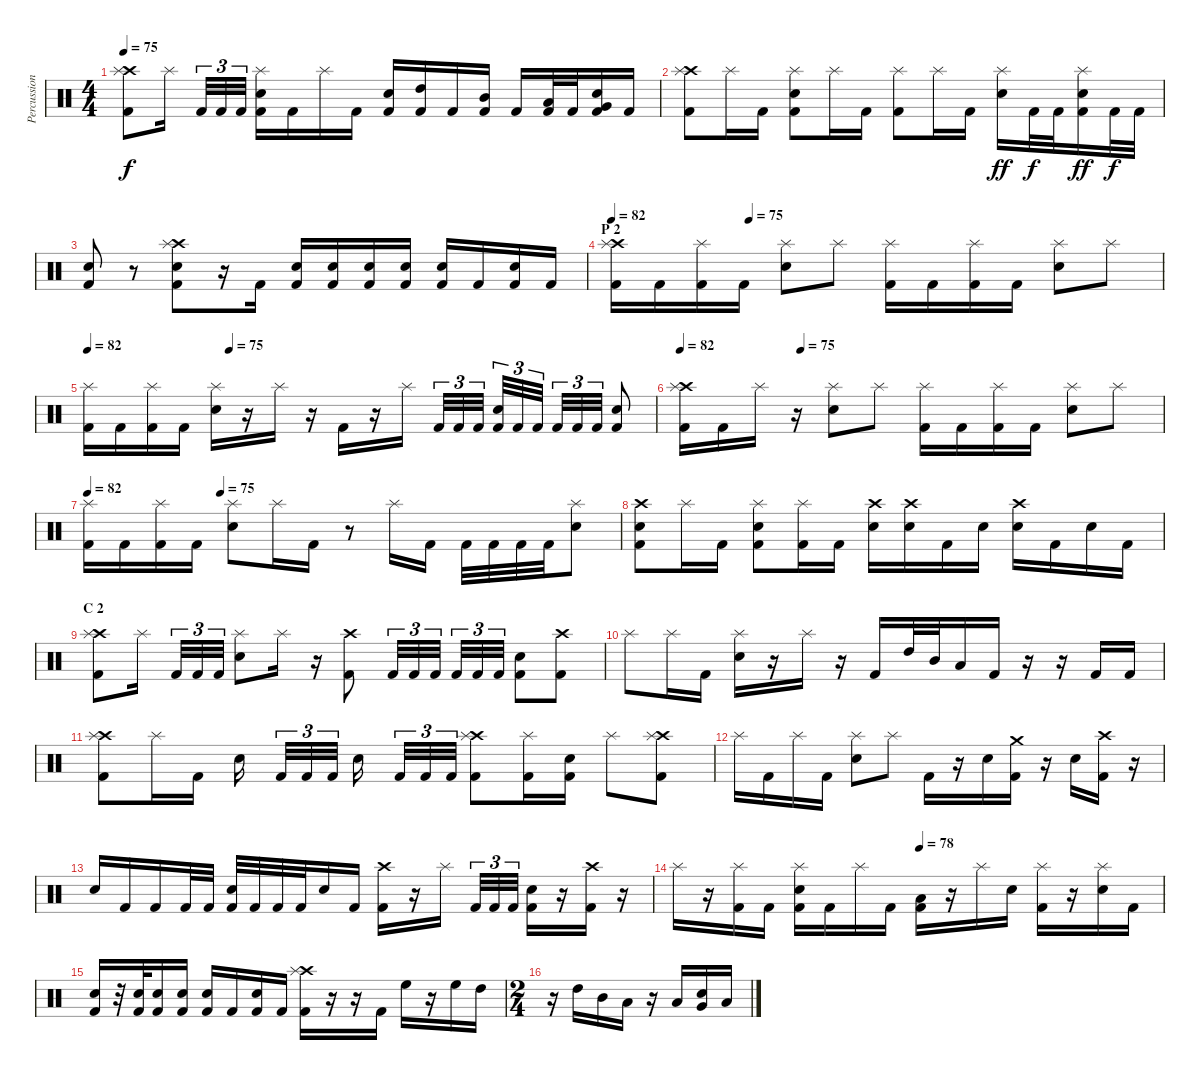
\track ("Percussion" "Percussion") {instrument percussion}
\staff {score}
\articulation defaults
\ts (4 4)
\tempo 75
\clef neutral
\ks c
("Crash high (hit)" "Splash (hit)" "Kick (hit) 2").8{dy f} "Splash (hit)".16 "Kick (hit) 2".32{tu (3 2)} "Kick (hit) 2".32{tu (3 2)} "Kick (hit) 2".32{tu (3 2)} ("Splash (hit)" "Snare (hit) 2" "Kick (hit) 2").16 "Kick (hit) 2".16 "Splash (hit)".16 "Kick (hit) 2".16 ("Snare (hit) 2" "Kick (hit) 2").16 ("High Tom (hit)" "Kick (hit) 2").16 "Kick (hit) 2".16 ("Mid Tom (hit)" "Kick (hit) 2").16 "Kick (hit) 2".16 ("Low Tom (hit)" "Kick (hit) 2").32 "Kick (hit) 2".32 ("Very Low Tom (hit)" "Snare (hit) 2" "Kick (hit) 2").16 "Kick (hit) 2".16 |
("Crash high (hit)" "Splash (hit)" "Kick (hit) 2").8 "Splash (hit)".16 "Kick (hit) 2".16 ("Splash (hit)" "Snare (hit) 2" "Kick (hit) 2").8 "Splash (hit)".16 "Kick (hit) 2".16 ("Splash (hit)" "Kick (hit) 2").8 "Splash (hit)".16 "Kick (hit) 2".16 ("Splash (hit)" "Snare (hit) 2").16{dy ff} "Kick (hit) 2".32{dy f} "Kick (hit) 2".32 ("Splash (hit)" "Snare (hit) 2" "Kick (hit) 2").16{dy ff} "Kick (hit) 2".32{dy f} "Kick (hit) 2".32 |
("Kick (hit) 2" "Snare (hit) 2").8 r.8 ("Crash high (hit)" "Splash (hit)" "Kick (hit) 2" "Snare (hit) 2").8 r.16 "Kick (hit) 2".16 ("Snare (hit) 2" "Kick (hit) 2").16 ("Snare (hit) 2" "Kick (hit) 2").16 ("Snare (hit) 2" "Kick (hit) 2").16 ("Snare (hit) 2" "Kick (hit) 2").16 ("Snare (hit) 2" "Kick (hit) 2").16 "Kick (hit) 2".16 ("Snare (hit) 2" "Kick (hit) 2").16 "Kick (hit) 2".16 |
\section ("" "P 2")
\tempo 82
\tempo (75 0.25)
("Crash high (hit)" "Splash (hit)" "Kick (hit) 2").16 "Kick (hit) 2".16 ("Splash (hit)" "Kick (hit) 2").16 "Kick (hit) 2".16 ("Splash (hit)" "Snare (hit) 2").8 "Splash (hit)".8 ("Splash (hit)" "Kick (hit) 2").16 "Kick (hit) 2".16 ("Splash (hit)" "Kick (hit) 2").16 "Kick (hit) 2".16 ("Splash (hit)" "Snare (hit) 2").8 "Splash (hit)".8 |
\tempo 82
\tempo (75 0.25)
("Splash (hit)" "Kick (hit) 2").16 "Kick (hit) 2".16 ("Splash (hit)" "Kick (hit) 2").16 "Kick (hit) 2".16 ("Splash (hit)" "Snare (hit) 2").16 r.16 "Splash (hit)".16 r.16 "Kick (hit) 2".16 r.16 "Splash (hit)".16 "Kick (hit) 2".32{tu (3 2)} "Kick (hit) 2".32{tu (3 2)} "Kick (hit) 2".32{tu (3 2)} ("Snare (hit) 2" "Kick (hit) 2").32{tu (3 2)} "Kick (hit) 2".32{tu (3 2)} "Kick (hit) 2".32{tu (3 2)} "Kick (hit) 2".32{tu (3 2)} "Kick (hit) 2".32{tu (3 2)} "Kick (hit) 2".32{tu (3 2)} ("Snare (hit) 2" "Kick (hit) 2").8 |
\tempo 82
\tempo (75 0.25)
("Crash high (hit)" "Splash (hit)" "Kick (hit) 2").16 "Kick (hit) 2".16 "Splash (hit)".16 r.16 ("Splash (hit)" "Snare (hit) 2").8 "Splash (hit)".8 ("Splash (hit)" "Kick (hit) 2").16 "Kick (hit) 2".16 ("Splash (hit)" "Kick (hit) 2").16 "Kick (hit) 2".16 ("Splash (hit)" "Snare (hit) 2").8 "Splash (hit)".8 |
\tempo 82
\tempo (75 0.25)
("Splash (hit)" "Kick (hit) 2").16 "Kick (hit) 2".16 ("Splash (hit)" "Kick (hit) 2").16 "Kick (hit) 2".16 ("Splash (hit)" "Snare (hit) 2").8 "Splash (hit)".16 "Kick (hit) 2".16 r.8 "Splash (hit)".16 "Kick (hit) 2".16 "Kick (hit) 2".32 "Kick (hit) 2".32 "Kick (hit) 2".32 "Kick (hit) 2".32 ("Splash (hit)" "Snare (hit) 2").8 |
("Crash high (hit)" "Snare (hit) 2" "Kick (hit) 2").8 "Splash (hit)".16 "Kick (hit) 2".16 ("Splash (hit)" "Snare (hit) 2" "Kick (hit) 2").8 ("Splash (hit)" "Kick (hit) 2").16 "Kick (hit) 2".16 ("Crash high (hit)" "Snare (hit) 2").16 ("Crash high (hit)" "Snare (hit) 2").16 "Kick (hit) 2".16 "Snare (hit) 2".16 ("Crash high (hit)" "Snare (hit) 2").16 "Kick (hit) 2".16 "Snare (hit) 2".16 "Kick (hit) 2".16 |
\section ("" "C 2")
("Crash high (hit)" "Splash (hit)" "Kick (hit) 2").8 "Splash (hit)".16 "Kick (hit) 2".32{tu (3 2)} "Kick (hit) 2".32{tu (3 2)} "Kick (hit) 2".32{tu (3 2)} ("Splash (hit)" "Snare (hit) 2").8 "Splash (hit)".16 r.16 ("Crash high (hit)" "Kick (hit) 2").8 "Kick (hit) 2".32{tu (3 2)} "Kick (hit) 2".32{tu (3 2)} "Kick (hit) 2".32{tu (3 2)} "Kick (hit) 2".32{tu (3 2)} "Kick (hit) 2".32{tu (3 2)} "Kick (hit) 2".32{tu (3 2)} ("Snare (hit) 2" "Kick (hit) 2").8 ("Crash high (hit)" "Kick (hit) 2").8 |
"Splash (hit)".8 "Splash (hit)".16 "Kick (hit) 2".16 ("Splash (hit)" "Snare (hit) 2").16 r.16 "Splash (hit)".16 r.16 "Kick (hit) 2".16 "High Tom (hit)".32 "Mid Tom (hit)".32 "Low Tom (hit)".16 "Kick (hit) 2".16 r.16 r.16 "Kick (hit) 2".16 "Kick (hit) 2".16 |
("Crash high (hit)" "Splash (hit)" "Kick (hit) 2").8 "Splash (hit)".16 "Kick (hit) 2".16 "Snare (hit) 2".16 "Kick (hit) 2".32{tu (3 2)} "Kick (hit) 2".32{tu (3 2)} "Kick (hit) 2".32{tu (3 2)} "Snare (hit) 2".16 "Kick (hit) 2".32{tu (3 2)} "Kick (hit) 2".32{tu (3 2)} "Kick (hit) 2".32{tu (3 2)} ("Crash high (hit)" "Splash (hit)" "Kick (hit) 2").8 ("Splash (hit)" "Kick (hit) 2").16 ("Snare (hit) 2" "Kick (hit) 2").16 "Splash (hit)".8 ("Crash high (hit)" "Splash (hit)" "Kick (hit) 2").8 |
"Splash (hit)".16 "Kick (hit) 2".16 "Splash (hit)".16 "Kick (hit) 2".16 ("Splash (hit)" "Snare (hit) 2").8 "Splash (hit)".8 "Kick (hit) 2".16 r.16 "Snare (hit) 2".16 ("Crash medium (hit)" "Kick (hit) 2").16 r.16 "Snare (hit) 2".16 ("Crash high (hit)" "Kick (hit) 2").16 r.16 |
"Snare (hit) 2".16 "Kick (hit) 2".16 "Kick (hit) 2".16 "Kick (hit) 2".32 "Kick (hit) 2".32 ("Snare (hit) 2" "Kick (hit) 2").32 "Kick (hit) 2".32 "Kick (hit) 2".32 "Kick (hit) 2".32 "Snare (hit) 2".16 "Kick (hit) 2".16 ("Crash high (hit)" "Kick (hit) 2").16 r.16 "Splash (hit)".16 "Kick (hit) 2".32{tu (3 2)} "Kick (hit) 2".32{tu (3 2)} "Kick (hit) 2".32{tu (3 2)} ("Snare (hit) 2" "Kick (hit) 2").16 r.16 ("Crash high (hit)" "Kick (hit) 2").16 r.16 |
\tempo (78 0.5)
"Splash (hit)".16 r.16 ("Splash (hit)" "Kick (hit) 2").16 "Kick (hit) 2".16 ("Splash (hit)" "Snare (hit) 2" "Kick (hit) 2").16 "Kick (hit) 2".16 "Splash (hit)".16 "Kick (hit) 2".16 ("Low Floor Tom (hit)" "Kick (hit) 2").16 r.16 "Splash (hit)".16 "Snare (hit) 2".16 ("Splash (hit)" "Kick (hit) 2").16 r.16 ("Splash (hit)" "Snare (hit) 2").16 "Kick (hit) 2".16 |
("Snare (hit) 2" "Kick (hit) 2").16 r.32 ("Snare (hit) 2" "Kick (hit) 2").32 ("Snare (hit) 2" "Kick (hit) 2").16 ("Snare (hit) 2" "Kick (hit) 2").16 ("Snare (hit) 2" "Kick (hit) 2").16 "Kick (hit) 2".16 ("Snare (hit) 2" "Kick (hit) 2").16 "Kick (hit) 2".16 ("Crash high (hit)" "Splash (hit)" "Kick (hit) 2").16 r.16 r.16 "Kick (hit) 2".16 "High Floor Tom (hit)".16 r.16 "High Floor Tom (hit)".16 "High Tom (hit)".16 |
\ts (2 4)
r.16 "High Tom (hit)".16 "Mid Tom (hit)".16 "Low Tom (hit)".16 r.16 "Low Tom (hit)".16 ("Snare (hit) 2" "Very Low Tom (hit)").16 "Low Floor Tom (hit)".16
